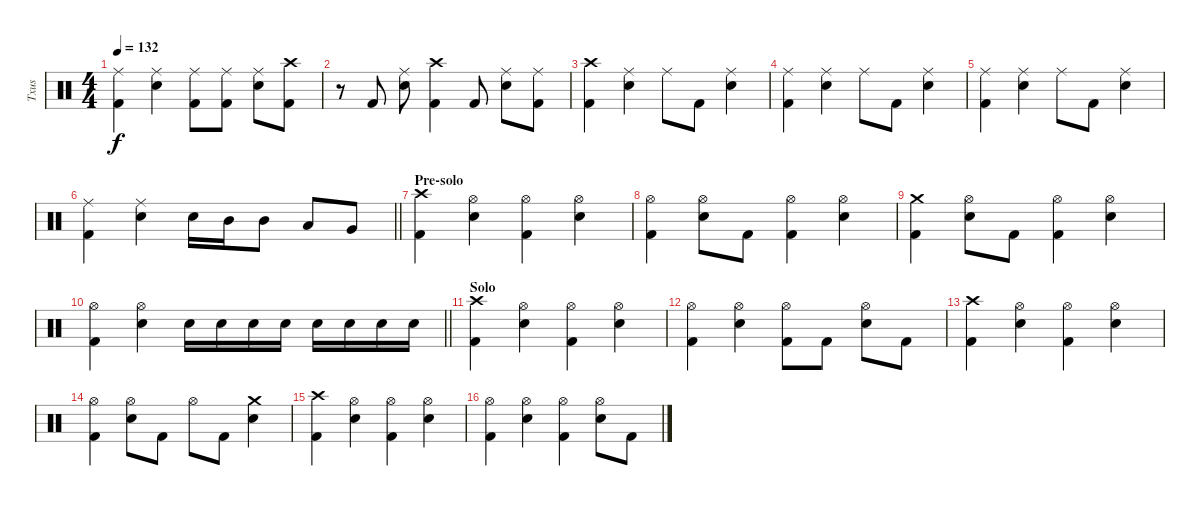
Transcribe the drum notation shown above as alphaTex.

\track ("Txus" "Txus") {instrument percussion}
\staff {score}
\articulation defaults
\ts (4 4)
\tempo 132
\clef neutral
\ks c
("Ride (middle)" "Kick (hit) 2").4{dy f} ("Ride (middle)" "Electric Snare (hit)").4 ("Ride (middle)" "Kick (hit) 2").8 ("Ride (middle)" "Kick (hit) 2").8 ("Ride (middle)" "Electric Snare (hit)").8 ("Crash high (hit)" "Kick (hit) 2").8 |
r.8 "Kick (hit) 2".8 ("Ride (middle)" "Electric Snare (hit)").8 ("Crash high (hit)" "Kick (hit) 2").4 "Kick (hit) 2".8 ("Ride (middle)" "Electric Snare (hit)").8 ("Ride (middle)" "Kick (hit) 2").8 |
("Crash high (hit)" "Kick (hit) 2").4 ("Ride (middle)" "Electric Snare (hit)").4 "Ride (middle)".8 "Kick (hit) 2".8 ("Ride (middle)" "Electric Snare (hit)").4 |
("Ride (middle)" "Kick (hit) 2").4 ("Ride (middle)" "Electric Snare (hit)").4 "Ride (middle)".8 "Kick (hit) 2".8 ("Ride (middle)" "Electric Snare (hit)").4 |
("Ride (middle)" "Kick (hit) 2").4 ("Ride (middle)" "Electric Snare (hit)").4 "Ride (middle)".8 "Kick (hit) 2".8 ("Ride (middle)" "Electric Snare (hit)").4 |
\barLineRight lightlight
("Ride (middle)" "Kick (hit) 2").4 ("Ride (middle)" "Electric Snare (hit)").4 "Electric Snare (hit)".16 "Mid Tom (hit)".16 "Mid Tom (hit)".8 "Low Tom (hit)".8 "Very Low Tom (hit)".8 |
\section ("" "Pre-solo")
("Crash high (hit)" "Kick (hit) 2").4 ("Hi-Hat (open)" "Electric Snare (hit)").4 ("Hi-Hat (open)" "Kick (hit) 2").4 ("Hi-Hat (open)" "Electric Snare (hit)").4 |
("Hi-Hat (open)" "Kick (hit) 2").4 ("Hi-Hat (open)" "Electric Snare (hit)").8 "Kick (hit) 2".8 ("Hi-Hat (open)" "Kick (hit) 2").4 ("Hi-Hat (open)" "Electric Snare (hit)").4 |
("Crash medium (hit)" "Kick (hit) 2").4 ("Hi-Hat (open)" "Electric Snare (hit)").8 "Kick (hit) 2".8 ("Hi-Hat (open)" "Kick (hit) 2").4 ("Hi-Hat (open)" "Electric Snare (hit)").4 |
\barLineRight lightlight
("Hi-Hat (open)" "Kick (hit) 2").4 ("Hi-Hat (open)" "Electric Snare (hit)").4 "Electric Snare (hit)".16 "Electric Snare (hit)".16 "Electric Snare (hit)".16 "Electric Snare (hit)".16 "Electric Snare (hit)".16 "Electric Snare (hit)".16 "Electric Snare (hit)".16 "Electric Snare (hit)".16 |
\section ("" "Solo")
("Crash high (hit)" "Kick (hit) 2").4 ("Hi-Hat (open)" "Electric Snare (hit)").4 ("Hi-Hat (open)" "Kick (hit) 2").4 ("Hi-Hat (open)" "Electric Snare (hit)").4 |
("Hi-Hat (open)" "Kick (hit) 2").4 ("Hi-Hat (open)" "Electric Snare (hit)").4 ("Hi-Hat (open)" "Kick (hit) 2").8 "Kick (hit) 2".8 ("Hi-Hat (open)" "Electric Snare (hit)").8 "Kick (hit) 2".8 |
("Crash high (hit)" "Kick (hit) 2").4 ("Hi-Hat (open)" "Electric Snare (hit)").4 ("Hi-Hat (open)" "Kick (hit) 2").4 ("Hi-Hat (open)" "Electric Snare (hit)").4 |
("Hi-Hat (open)" "Kick (hit) 2").4 ("Hi-Hat (open)" "Electric Snare (hit)").8 "Kick (hit) 2".8 "Hi-Hat (open)".8 "Kick (hit) 2".8 ("Crash medium (hit)" "Electric Snare (hit)").4 |
("Crash high (hit)" "Kick (hit) 2").4 ("Hi-Hat (open)" "Electric Snare (hit)").4 ("Hi-Hat (open)" "Kick (hit) 2").4 ("Hi-Hat (open)" "Electric Snare (hit)").4 |
("Hi-Hat (open)" "Kick (hit) 2").4 ("Hi-Hat (open)" "Electric Snare (hit)").4 ("Hi-Hat (open)" "Kick (hit) 2").4 ("Hi-Hat (open)" "Electric Snare (hit)").8 "Kick (hit) 2".8
